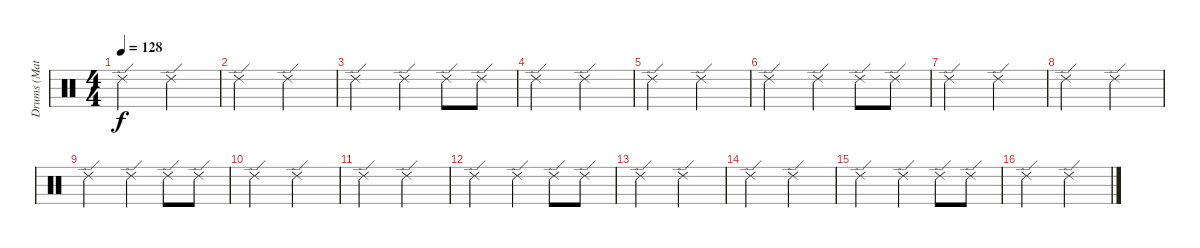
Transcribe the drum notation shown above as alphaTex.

\track ("Drums (Matt)" "Drums (Mat") {instrument percussion}
\staff {score}
\articulation defaults
\ts (4 4)
\tempo 128
\clef neutral
\ks c "Ride (edge) 2".2{dy f} "Ride (edge) 2".2
|
"Ride (edge) 2".2 "Ride (edge) 2".2 |
"Ride (edge) 2".2 "Ride (edge) 2".4 "Ride (edge) 2".8 "Ride (edge) 2".8 |
"Ride (edge) 2".2 "Ride (edge) 2".2 |
"Ride (edge) 2".2 "Ride (edge) 2".2 |
"Ride (edge) 2".2 "Ride (edge) 2".4 "Ride (edge) 2".8 "Ride (edge) 2".8 |
"Ride (edge) 2".2 "Ride (edge) 2".2 |
"Ride (edge) 2".2 "Ride (edge) 2".2 |
"Ride (edge) 2".2 "Ride (edge) 2".4 "Ride (edge) 2".8 "Ride (edge) 2".8 |
"Ride (edge) 2".2 "Ride (edge) 2".2 |
"Ride (edge) 2".2 "Ride (edge) 2".2 |
"Ride (edge) 2".2 "Ride (edge) 2".4 "Ride (edge) 2".8 "Ride (edge) 2".8 |
"Ride (edge) 2".2 "Ride (edge) 2".2 |
"Ride (edge) 2".2 "Ride (edge) 2".2 |
"Ride (edge) 2".2 "Ride (edge) 2".4 "Ride (edge) 2".8 "Ride (edge) 2".8 |
"Ride (edge) 2".2 "Ride (edge) 2".2
